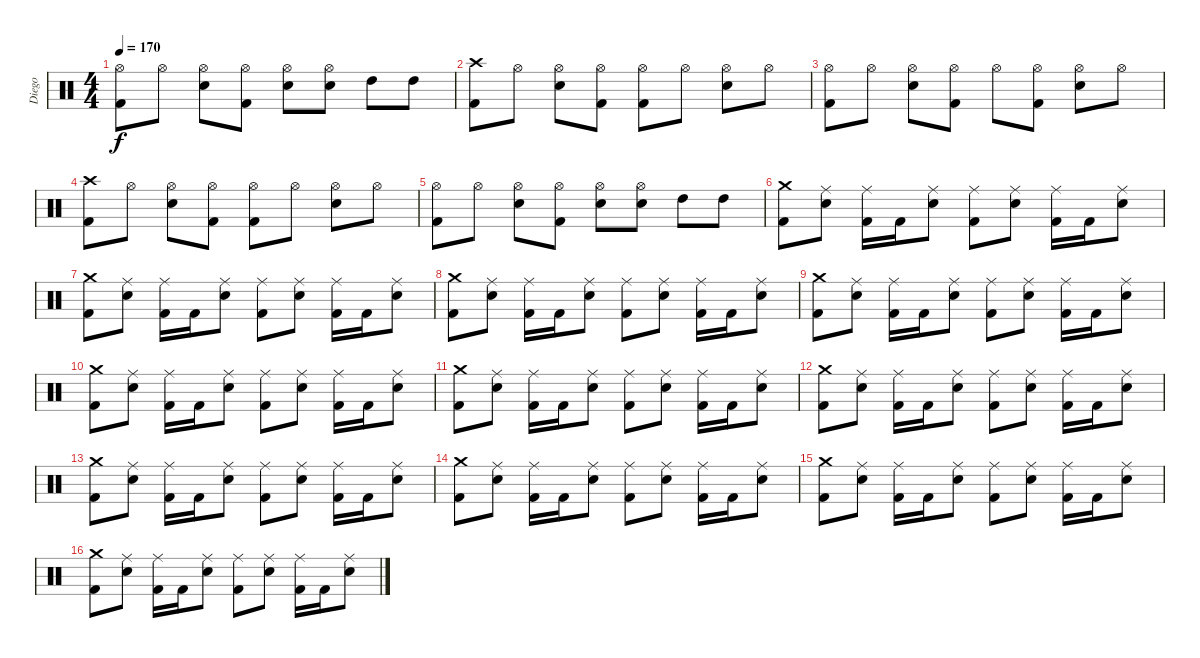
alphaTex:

\track ("Diego" "Diego") {instrument percussion}
\staff {score}
\articulation defaults
\ts (4 4)
\tempo 170
\clef neutral
\ks c
("Hi-Hat (open)" "Kick (hit) 2").8{dy f} "Hi-Hat (open)".8 ("Hi-Hat (open)" "Electric Snare (hit)").8 ("Hi-Hat (open)" "Kick (hit) 2").8 ("Hi-Hat (open)" "Electric Snare (hit)").8 ("Hi-Hat (open)" "Electric Snare (hit)").8 "High Tom (hit)".8 "High Tom (hit)".8 |
("Crash high (hit)" "Kick (hit) 2").8 "Hi-Hat (open)".8 ("Hi-Hat (open)" "Electric Snare (hit)").8 ("Hi-Hat (open)" "Kick (hit) 2").8 ("Hi-Hat (open)" "Kick (hit) 2").8 "Hi-Hat (open)".8 ("Hi-Hat (open)" "Electric Snare (hit)").8 "Hi-Hat (open)".8 |
("Hi-Hat (open)" "Kick (hit) 2").8 "Hi-Hat (open)".8 ("Hi-Hat (open)" "Electric Snare (hit)").8 ("Hi-Hat (open)" "Kick (hit) 2").8 "Hi-Hat (open)".8 ("Hi-Hat (open)" "Kick (hit) 2").8 ("Hi-Hat (open)" "Electric Snare (hit)").8 "Hi-Hat (open)".8 |
("Crash high (hit)" "Kick (hit) 2").8 "Hi-Hat (open)".8 ("Hi-Hat (open)" "Electric Snare (hit)").8 ("Hi-Hat (open)" "Kick (hit) 2").8 ("Hi-Hat (open)" "Kick (hit) 2").8 "Hi-Hat (open)".8 ("Hi-Hat (open)" "Electric Snare (hit)").8 "Hi-Hat (open)".8 |
("Hi-Hat (open)" "Kick (hit) 2").8 "Hi-Hat (open)".8 ("Hi-Hat (open)" "Electric Snare (hit)").8 ("Hi-Hat (open)" "Kick (hit) 2").8 ("Hi-Hat (open)" "Electric Snare (hit)").8 ("Hi-Hat (open)" "Electric Snare (hit)").8 "High Tom (hit)".8 "High Tom (hit)".8 |
("Crash medium (hit)" "Kick (hit) 2").8 ("Ride (middle)" "Electric Snare (hit)").8 ("Ride (middle)" "Kick (hit) 2").16 "Kick (hit) 2".16 ("Ride (middle)" "Electric Snare (hit)").8 ("Ride (middle)" "Kick (hit) 2").8 ("Ride (middle)" "Electric Snare (hit)").8 ("Ride (middle)" "Kick (hit) 2").16 "Kick (hit) 2".16 ("Ride (middle)" "Electric Snare (hit)").8 |
("Crash medium (hit)" "Kick (hit) 2").8 ("Ride (middle)" "Electric Snare (hit)").8 ("Ride (middle)" "Kick (hit) 2").16 "Kick (hit) 2".16 ("Ride (middle)" "Electric Snare (hit)").8 ("Ride (middle)" "Kick (hit) 2").8 ("Ride (middle)" "Electric Snare (hit)").8 ("Ride (middle)" "Kick (hit) 2").16 "Kick (hit) 2".16 ("Ride (middle)" "Electric Snare (hit)").8 |
("Crash medium (hit)" "Kick (hit) 2").8 ("Ride (middle)" "Electric Snare (hit)").8 ("Ride (middle)" "Kick (hit) 2").16 "Kick (hit) 2".16 ("Ride (middle)" "Electric Snare (hit)").8 ("Ride (middle)" "Kick (hit) 2").8 ("Ride (middle)" "Electric Snare (hit)").8 ("Ride (middle)" "Kick (hit) 2").16 "Kick (hit) 2".16 ("Ride (middle)" "Electric Snare (hit)").8 |
("Crash medium (hit)" "Kick (hit) 2").8 ("Ride (middle)" "Electric Snare (hit)").8 ("Ride (middle)" "Kick (hit) 2").16 "Kick (hit) 2".16 ("Ride (middle)" "Electric Snare (hit)").8 ("Ride (middle)" "Kick (hit) 2").8 ("Ride (middle)" "Electric Snare (hit)").8 ("Ride (middle)" "Kick (hit) 2").16 "Kick (hit) 2".16 ("Ride (middle)" "Electric Snare (hit)").8 |
("Crash medium (hit)" "Kick (hit) 2").8 ("Ride (middle)" "Electric Snare (hit)").8 ("Ride (middle)" "Kick (hit) 2").16 "Kick (hit) 2".16 ("Ride (middle)" "Electric Snare (hit)").8 ("Ride (middle)" "Kick (hit) 2").8 ("Ride (middle)" "Electric Snare (hit)").8 ("Ride (middle)" "Kick (hit) 2").16 "Kick (hit) 2".16 ("Ride (middle)" "Electric Snare (hit)").8 |
("Crash medium (hit)" "Kick (hit) 2").8 ("Ride (middle)" "Electric Snare (hit)").8 ("Ride (middle)" "Kick (hit) 2").16 "Kick (hit) 2".16 ("Ride (middle)" "Electric Snare (hit)").8 ("Ride (middle)" "Kick (hit) 2").8 ("Ride (middle)" "Electric Snare (hit)").8 ("Ride (middle)" "Kick (hit) 2").16 "Kick (hit) 2".16 ("Ride (middle)" "Electric Snare (hit)").8 |
("Crash medium (hit)" "Kick (hit) 2").8 ("Ride (middle)" "Electric Snare (hit)").8 ("Ride (middle)" "Kick (hit) 2").16 "Kick (hit) 2".16 ("Ride (middle)" "Electric Snare (hit)").8 ("Ride (middle)" "Kick (hit) 2").8 ("Ride (middle)" "Electric Snare (hit)").8 ("Ride (middle)" "Kick (hit) 2").16 "Kick (hit) 2".16 ("Ride (middle)" "Electric Snare (hit)").8 |
("Crash medium (hit)" "Kick (hit) 2").8 ("Ride (middle)" "Electric Snare (hit)").8 ("Ride (middle)" "Kick (hit) 2").16 "Kick (hit) 2".16 ("Ride (middle)" "Electric Snare (hit)").8 ("Ride (middle)" "Kick (hit) 2").8 ("Ride (middle)" "Electric Snare (hit)").8 ("Ride (middle)" "Kick (hit) 2").16 "Kick (hit) 2".16 ("Ride (middle)" "Electric Snare (hit)").8 |
("Crash medium (hit)" "Kick (hit) 2").8 ("Ride (middle)" "Electric Snare (hit)").8 ("Ride (middle)" "Kick (hit) 2").16 "Kick (hit) 2".16 ("Ride (middle)" "Electric Snare (hit)").8 ("Ride (middle)" "Kick (hit) 2").8 ("Ride (middle)" "Electric Snare (hit)").8 ("Ride (middle)" "Kick (hit) 2").16 "Kick (hit) 2".16 ("Ride (middle)" "Electric Snare (hit)").8 |
("Crash medium (hit)" "Kick (hit) 2").8 ("Ride (middle)" "Electric Snare (hit)").8 ("Ride (middle)" "Kick (hit) 2").16 "Kick (hit) 2".16 ("Ride (middle)" "Electric Snare (hit)").8 ("Ride (middle)" "Kick (hit) 2").8 ("Ride (middle)" "Electric Snare (hit)").8 ("Ride (middle)" "Kick (hit) 2").16 "Kick (hit) 2".16 ("Ride (middle)" "Electric Snare (hit)").8 |
("Crash medium (hit)" "Kick (hit) 2").8 ("Ride (middle)" "Electric Snare (hit)").8 ("Ride (middle)" "Kick (hit) 2").16 "Kick (hit) 2".16 ("Ride (middle)" "Electric Snare (hit)").8 ("Ride (middle)" "Kick (hit) 2").8 ("Ride (middle)" "Electric Snare (hit)").8 ("Ride (middle)" "Kick (hit) 2").16 "Kick (hit) 2".16 ("Ride (middle)" "Electric Snare (hit)").8
